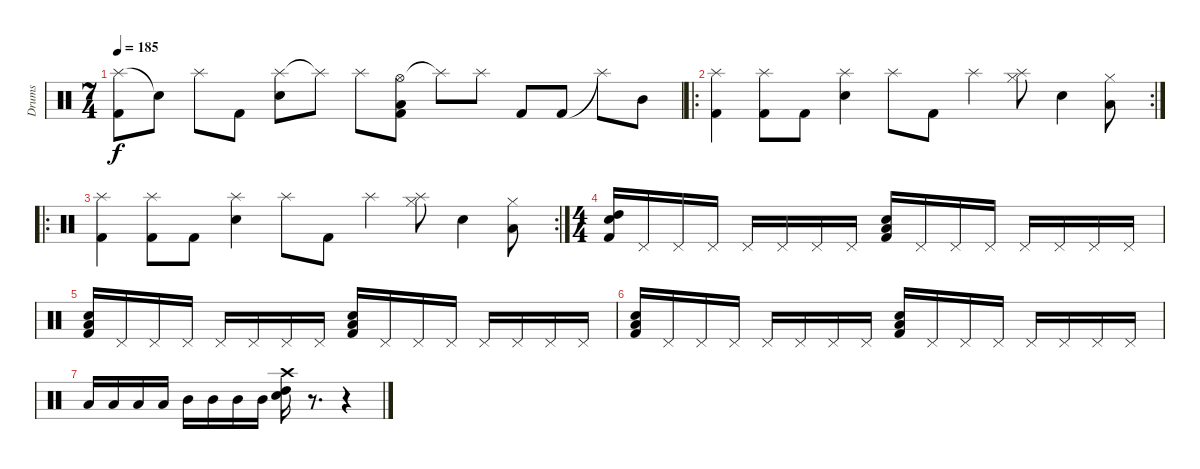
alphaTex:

\track ("Drums" "Drums") {instrument percussion}
\staff {score}
\articulation defaults
\ts (7 4)
\tempo 185
\clef neutral
\ks c
("Splash (hit)" "Kick (hit) 2").8{dy f} "Snare (hit)"{t}.8 "Splash (hit)".8 "Kick (hit) 2".8 ("Splash (hit)" "Electric Snare (hit)").8 "Splash (hit)"{t}.8 "Splash (hit)".8 ("Hi-Hat (open)" "Low Tom (hit)" "Kick (hit) 2").8 "Splash (hit)"{t}.8 "Splash (hit)".8 "Kick (hit) 2".8 "Kick (hit) 2".8 "Splash (hit)"{t}.8 "Mid Tom (hit)".8 |
\ro
\rc 2
("Kick (hit) 2" "Splash (hit)").4 ("Splash (hit)" "Kick (hit) 2").8 "Kick (hit) 2".8 ("Splash (hit)" "Electric Snare (hit)").4 "Splash (hit)".8 "Kick (hit) 2".8 "Splash (hit)".4 ("Splash (hit)" "Hi-Hat (closed)").8 "Electric Snare (hit)".4 ("Hi-Hat (closed)" "Low Tom (hit)").8 |
\ro
\rc 2
("Kick (hit) 2" "Splash (hit)").4 ("Splash (hit)" "Kick (hit) 2").8 "Kick (hit) 2".8 ("Splash (hit)" "Electric Snare (hit)").4 "Splash (hit)".8 "Kick (hit) 2".8 "Splash (hit)".4 ("Splash (hit)" "Hi-Hat (closed)").8 "Electric Snare (hit)".4 ("Hi-Hat (closed)" "Low Tom (hit)").8 |
\ts (4 4)
("Kick (hit) 2" "High Tom (hit)" "Electric Snare (hit)").16 "Pedal Hi-Hat (hit)".16 "Pedal Hi-Hat (hit)".16 "Pedal Hi-Hat (hit)".16 "Pedal Hi-Hat (hit)".16 "Pedal Hi-Hat (hit)".16 "Pedal Hi-Hat (hit)".16 "Pedal Hi-Hat (hit)".16 ("Low Tom (hit)" "Electric Snare (hit)" "Kick (hit) 2").16 "Pedal Hi-Hat (hit)".16 "Pedal Hi-Hat (hit)".16 "Pedal Hi-Hat (hit)".16 "Pedal Hi-Hat (hit)".16 "Pedal Hi-Hat (hit)".16 "Pedal Hi-Hat (hit)".16 "Pedal Hi-Hat (hit)".16 |
("Low Tom (hit)" "Electric Snare (hit)" "Kick (hit) 2").16 "Pedal Hi-Hat (hit)".16 "Pedal Hi-Hat (hit)".16 "Pedal Hi-Hat (hit)".16 "Pedal Hi-Hat (hit)".16 "Pedal Hi-Hat (hit)".16 "Pedal Hi-Hat (hit)".16 "Pedal Hi-Hat (hit)".16 ("Low Tom (hit)" "Electric Snare (hit)" "Kick (hit) 2").16 "Pedal Hi-Hat (hit)".16 "Pedal Hi-Hat (hit)".16 "Pedal Hi-Hat (hit)".16 "Pedal Hi-Hat (hit)".16 "Pedal Hi-Hat (hit)".16 "Pedal Hi-Hat (hit)".16 "Pedal Hi-Hat (hit)".16 |
("Low Tom (hit)" "Electric Snare (hit)" "Kick (hit) 2").16 "Pedal Hi-Hat (hit)".16 "Pedal Hi-Hat (hit)".16 "Pedal Hi-Hat (hit)".16 "Pedal Hi-Hat (hit)".16 "Pedal Hi-Hat (hit)".16 "Pedal Hi-Hat (hit)".16 "Pedal Hi-Hat (hit)".16 ("Low Tom (hit)" "Electric Snare (hit)" "Kick (hit) 2").16 "Pedal Hi-Hat (hit)".16 "Pedal Hi-Hat (hit)".16 "Pedal Hi-Hat (hit)".16 "Pedal Hi-Hat (hit)".16 "Pedal Hi-Hat (hit)".16 "Pedal Hi-Hat (hit)".16 "Pedal Hi-Hat (hit)".16 |
"Low Tom (hit)".16 "Low Tom (hit)".16 "Low Tom (hit)".16 "Low Tom (hit)".16 "Mid Tom (hit)".16 "Mid Tom (hit)".16 "Mid Tom (hit)".16 "Mid Tom (hit)".16 ("Electric Snare (hit)" "Crash high (hit)" "High Tom (hit)").16 r.8{d} r.4
